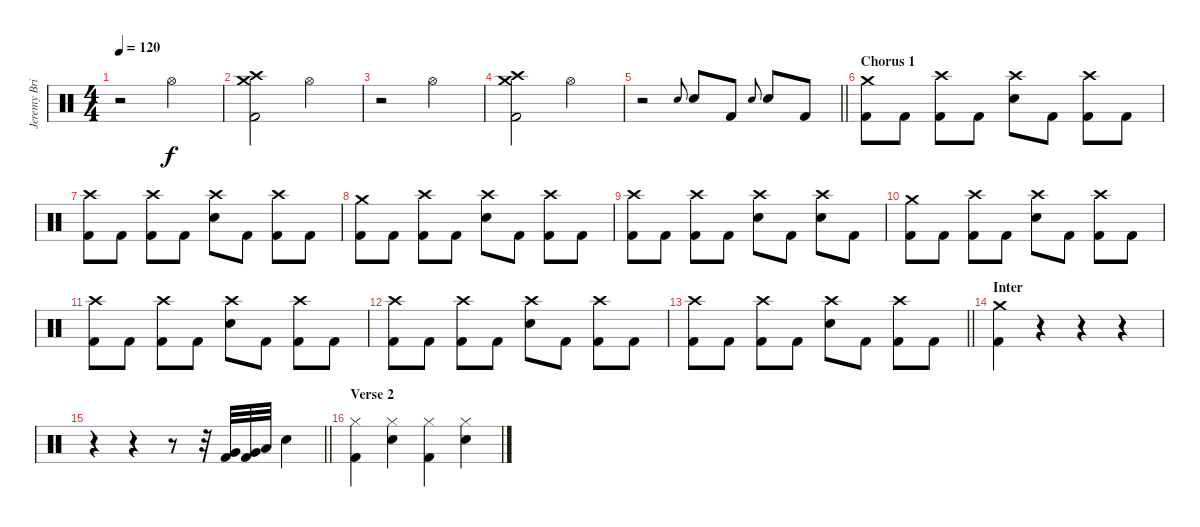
\track ("Jeremy Brian [Drums]" "Jeremy Bri") {instrument percussion}
\staff {score}
\articulation defaults
\ts (4 4)
\tempo 120
\clef neutral
\ks c
r.2{dy f} "Hi-Hat (open)".2 |
("Crash high (hit)" "Crash medium (hit)" "Kick (hit) 2").2 "Hi-Hat (open)".2 |
r.2 "Hi-Hat (open)".2 |
("Crash high (hit)" "Crash medium (hit)" "Kick (hit) 2").2 "Hi-Hat (open)".2 |
\barLineRight lightlight
r.2 "Electric Snare (hit)".8{gr onbeat} "Electric Snare (hit)".8 "Kick (hit) 2".8 "Electric Snare (hit)".8{gr onbeat} "Electric Snare (hit)".8 "Kick (hit) 2".8 |
\section ("" "Chorus 1")
("Crash medium (hit)" "Kick (hit) 2").8 "Kick (hit) 2".8 ("Crash high (hit)" "Kick (hit) 2").8 "Kick (hit) 2".8 ("Crash high (hit)" "Electric Snare (hit)").8 "Kick (hit) 2".8 ("Crash high (hit)" "Kick (hit) 2").8 "Kick (hit) 2".8 |
("Crash high (hit)" "Kick (hit) 2").8 "Kick (hit) 2".8 ("Crash high (hit)" "Kick (hit) 2").8 "Kick (hit) 2".8 ("Crash high (hit)" "Electric Snare (hit)").8 "Kick (hit) 2".8 ("Crash high (hit)" "Kick (hit) 2").8 "Kick (hit) 2".8 |
("Crash medium (hit)" "Kick (hit) 2").8 "Kick (hit) 2".8 ("Crash high (hit)" "Kick (hit) 2").8 "Kick (hit) 2".8 ("Crash high (hit)" "Electric Snare (hit)").8 "Kick (hit) 2".8 ("Crash high (hit)" "Kick (hit) 2").8 "Kick (hit) 2".8 |
("Crash high (hit)" "Kick (hit) 2").8 "Kick (hit) 2".8 ("Crash high (hit)" "Kick (hit) 2").8 "Kick (hit) 2".8 ("Crash high (hit)" "Electric Snare (hit)").8 "Kick (hit) 2".8 ("Crash high (hit)" "Electric Snare (hit)").8 "Kick (hit) 2".8 |
("Crash medium (hit)" "Kick (hit) 2").8 "Kick (hit) 2".8 ("Crash high (hit)" "Kick (hit) 2").8 "Kick (hit) 2".8 ("Crash high (hit)" "Electric Snare (hit)").8 "Kick (hit) 2".8 ("Crash high (hit)" "Kick (hit) 2").8 "Kick (hit) 2".8 |
("Crash high (hit)" "Kick (hit) 2").8 "Kick (hit) 2".8 ("Crash high (hit)" "Kick (hit) 2").8 "Kick (hit) 2".8 ("Crash high (hit)" "Electric Snare (hit)").8 "Kick (hit) 2".8 ("Crash high (hit)" "Kick (hit) 2").8 "Kick (hit) 2".8 |
("Crash high (hit)" "Kick (hit) 2").8 "Kick (hit) 2".8 ("Crash high (hit)" "Kick (hit) 2").8 "Kick (hit) 2".8 ("Crash high (hit)" "Electric Snare (hit)").8 "Kick (hit) 2".8 ("Crash high (hit)" "Kick (hit) 2").8 "Kick (hit) 2".8 |
\barLineRight lightlight
("Crash high (hit)" "Kick (hit) 2").8 "Kick (hit) 2".8 ("Crash high (hit)" "Kick (hit) 2").8 "Kick (hit) 2".8 ("Crash high (hit)" "Electric Snare (hit)").8 "Kick (hit) 2".8 ("Crash high (hit)" "Kick (hit) 2").8 "Kick (hit) 2".8 |
\section ("" "Inter")
("Crash medium (hit)" "Kick (hit) 2").4 r.4{volume 0} r.4 r.4 |
\barLineRight lightlight
r.4 r.4 r.8 r.32 ("Very Low Tom (hit)" "Kick (hit) 2").32{volume 12} ("Very Low Tom (hit)" "Kick (hit) 2").32 "Low Floor Tom (hit)".32 "Electric Snare (hit)".4 |
\section ("" "Verse 2")
("Hi-Hat (closed)" "Kick (hit) 2").4 ("Hi-Hat (closed)" "Electric Snare (hit)").4 ("Hi-Hat (closed)" "Kick (hit) 2").4 ("Hi-Hat (closed)" "Electric Snare (hit)").4
